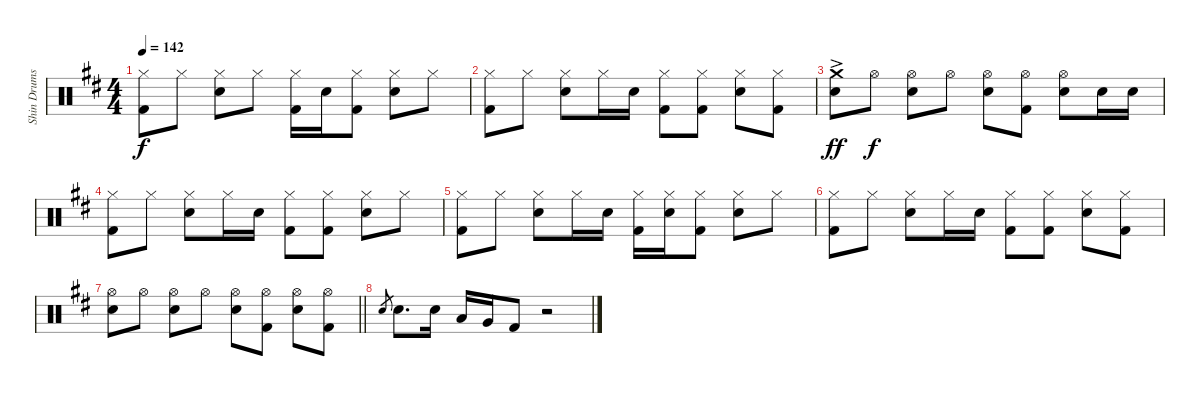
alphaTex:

\track ("Shin Drums" "Shin Drums") {instrument percussion}
\staff {score}
\articulation defaults
\ts (4 4)
\tempo 142
\clef neutral
\ks d
("Hi-Hat (closed)" "Kick (hit) 2").8{dy f} "Hi-Hat (closed)".8 ("Hi-Hat (closed)" "Snare (hit) 2").8 "Hi-Hat (closed)".8 ("Hi-Hat (closed)" "Kick (hit) 2").16 "Snare (hit) 2".16 ("Hi-Hat (closed)" "Kick (hit) 2").8 ("Hi-Hat (closed)" "Snare (hit) 2").8 "Hi-Hat (closed)".8 |
("Hi-Hat (closed)" "Kick (hit) 2").8 "Hi-Hat (closed)".8 ("Hi-Hat (closed)" "Snare (hit) 2").8 "Hi-Hat (closed)".16 "Snare (hit) 2".16 ("Hi-Hat (closed)" "Kick (hit) 2").8 ("Hi-Hat (closed)" "Kick (hit) 2").8 ("Hi-Hat (closed)" "Snare (hit) 2").8 ("Hi-Hat (closed)" "Kick (hit) 2").8 |
("Crash medium (hit)"{ac} "Snare (hit) 2").8{dy ff} "Hi-Hat (open)".8{dy f} ("Hi-Hat (open)" "Snare (hit) 2").8 "Hi-Hat (open)".8 ("Hi-Hat (open)" "Snare (hit) 2").8 ("Hi-Hat (open)" "Kick (hit) 2").8 ("Hi-Hat (open)" "Snare (hit) 2").8 "Snare (hit) 2".16 "Snare (hit) 2".16 |
("Hi-Hat (closed)" "Kick (hit) 2").8 "Hi-Hat (closed)".8 ("Hi-Hat (closed)" "Snare (hit) 2").8 "Hi-Hat (closed)".16 "Snare (hit) 2".16 ("Hi-Hat (closed)" "Kick (hit) 2").8 ("Hi-Hat (closed)" "Kick (hit) 2").8 ("Hi-Hat (closed)" "Snare (hit) 2").8 "Hi-Hat (closed)".8 |
("Hi-Hat (closed)" "Kick (hit) 2").8 "Hi-Hat (closed)".8 ("Hi-Hat (closed)" "Snare (hit) 2").8 "Hi-Hat (closed)".16 "Snare (hit) 2".16 ("Hi-Hat (closed)" "Kick (hit) 2").16 ("Hi-Hat (closed)" "Snare (hit) 2").16 ("Hi-Hat (closed)" "Kick (hit) 2").8 ("Hi-Hat (closed)" "Snare (hit) 2").8 "Hi-Hat (closed)".8 |
("Hi-Hat (closed)" "Kick (hit) 2").8 "Hi-Hat (closed)".8 ("Hi-Hat (closed)" "Snare (hit) 2").8 "Hi-Hat (closed)".16 "Snare (hit) 2".16 ("Hi-Hat (closed)" "Kick (hit) 2").8 ("Hi-Hat (closed)" "Kick (hit) 2").8 ("Hi-Hat (closed)" "Snare (hit) 2").8 ("Hi-Hat (closed)" "Kick (hit) 2").8 |
\barLineRight lightlight
("Hi-Hat (open)" "Snare (hit) 2").8 "Hi-Hat (open)".8 ("Hi-Hat (open)" "Snare (hit) 2").8 "Hi-Hat (open)".8 ("Hi-Hat (open)" "Snare (hit) 2").8 ("Hi-Hat (open)" "Kick (hit) 2").8 ("Hi-Hat (open)" "Snare (hit) 2").8 ("Hi-Hat (open)" "Kick (hit) 2").8 |
"Snare (hit) 2".8{gr} "Snare (hit) 2".8{d} "Snare (hit) 2".16 "Low Tom (hit)".16 "Very Low Tom (hit)".16 "Kick (hit) 2".8 r.2
